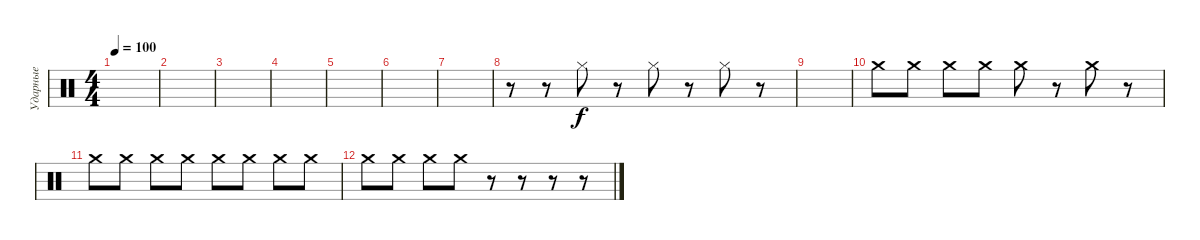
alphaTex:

\track ("Ударные" "Ударные") {instrument percussion}
\staff {score}
\articulation defaults
\ts (4 4)
\tempo 100
\clef neutral
\ks c
|
|
|
|
|
|
|
r.8 r.8 "Hi-Hat (closed)".8 r.8 "Hi-Hat (closed)".8 r.8 "Hi-Hat (closed)".8 r.8 |
|
"Crash medium (hit)".8 "Crash medium (hit)".8 "Crash medium (hit)".8 "Crash medium (hit)".8 "Crash medium (hit)".8 r.8 "Crash medium (hit)".8 r.8 |
"Crash medium (hit)".8 "Crash medium (hit)".8 "Crash medium (hit)".8 "Crash medium (hit)".8 "Crash medium (hit)".8 "Crash medium (hit)".8 "Crash medium (hit)".8 "Crash medium (hit)".8 |
"Crash medium (hit)".8 "Crash medium (hit)".8 "Crash medium (hit)".8 "Crash medium (hit)".8 r.8 r.8 r.8 r.8
